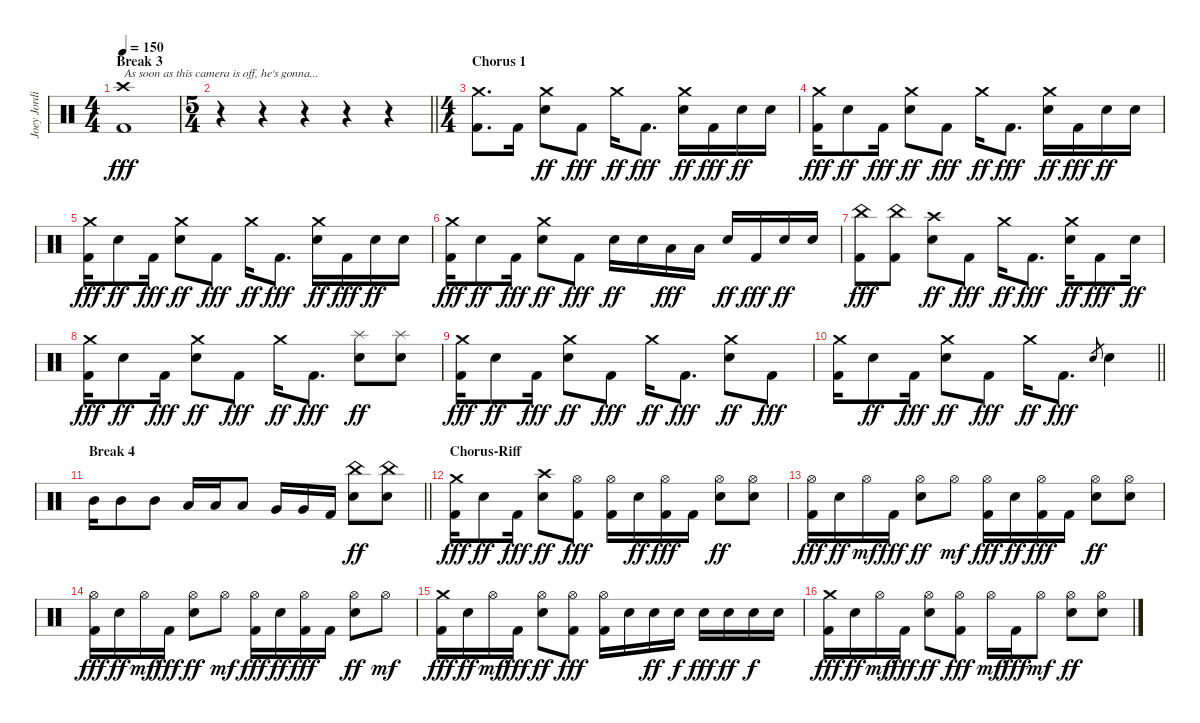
\track ("Joey Jordison" "Joey Jordi") {instrument percussion}
\staff {score}
\articulation defaults
\ts (4 4)
\section ("" "Break 3")
\tempo 150
\clef neutral
\ks c
("Crash high (hit)" "Kick (hit) 2").1{txt "As soon as this camera is off, he's gonna..." dy fff} |
\ts (5 4)
\barLineRight lightlight
r.4 r.4 r.4 r.4 r.4 |
\ts (4 4)
\section ("" "Chorus 1")
("Crash medium (hit)" "Kick (hit) 2").8{d} "Kick (hit) 2".16 ("Crash medium (hit)" "Electric Snare (hit)").8{dy ff} "Kick (hit) 2".8{dy fff} "Crash medium (hit)".16{dy ff} "Kick (hit) 2".8{d dy fff} ("Crash medium (hit)" "Electric Snare (hit)").16{dy ff} "Kick (hit) 2".16{dy fff} "Electric Snare (hit)".16{dy ff} "Electric Snare (hit)".16 |
("Crash medium (hit)" "Kick (hit) 2").16{dy fff} "Electric Snare (hit)".8{dy ff} "Kick (hit) 2".16{dy fff} ("Crash medium (hit)" "Electric Snare (hit)").8{dy ff} "Kick (hit) 2".8{dy fff} "Crash medium (hit)".16{dy ff} "Kick (hit) 2".8{d dy fff} ("Crash medium (hit)" "Electric Snare (hit)").16{dy ff} "Kick (hit) 2".16{dy fff} "Electric Snare (hit)".16{dy ff} "Electric Snare (hit)".16 |
("Crash medium (hit)" "Kick (hit) 2").16{dy fff} "Electric Snare (hit)".8{dy ff} "Kick (hit) 2".16{dy fff} ("Crash medium (hit)" "Electric Snare (hit)").8{dy ff} "Kick (hit) 2".8{dy fff} "Crash medium (hit)".16{dy ff} "Kick (hit) 2".8{d dy fff} ("Crash medium (hit)" "Electric Snare (hit)").16{dy ff} "Kick (hit) 2".16{dy fff} "Electric Snare (hit)".16{dy ff} "Electric Snare (hit)".16 |
("Crash medium (hit)" "Kick (hit) 2").16{dy fff} "Electric Snare (hit)".8{dy ff} "Kick (hit) 2".16{dy fff} ("Crash medium (hit)" "Electric Snare (hit)").8{dy ff} "Kick (hit) 2".8{dy fff} "Electric Snare (hit)".16{dy ff} "Electric Snare (hit)".16 "Low Tom (hit)".16{dy fff} "Low Tom (hit)".16 "Electric Snare (hit)".16{dy ff} "Kick (hit) 2".16{dy fff} "Electric Snare (hit)".16{dy ff} "Electric Snare (hit)".16 |
("China (hit)" "Kick (hit) 2").8{dy fff} ("China (hit)" "Kick (hit) 2").8 ("Crash high (hit)" "Electric Snare (hit)").8{dy ff} "Kick (hit) 2".8{dy fff} "Crash medium (hit)".16{dy ff} "Kick (hit) 2".8{d dy fff} ("Crash medium (hit)" "Electric Snare (hit)").16{dy ff} "Kick (hit) 2".8{dy fff} "Electric Snare (hit)".16{dy ff} |
("Crash medium (hit)" "Kick (hit) 2").16{dy fff} "Electric Snare (hit)".8{dy ff} "Kick (hit) 2".16{dy fff} ("Crash medium (hit)" "Electric Snare (hit)").8{dy ff} "Kick (hit) 2".8{dy fff} "Crash medium (hit)".16{dy ff} "Kick (hit) 2".8{d dy fff} ("Splash (hit)" "Electric Snare (hit)").8{dy ff} ("Splash (hit)" "Electric Snare (hit)").8 |
("Crash medium (hit)" "Kick (hit) 2").16{dy fff} "Electric Snare (hit)".8{dy ff} "Kick (hit) 2".16{dy fff} ("Crash medium (hit)" "Electric Snare (hit)").8{dy ff} "Kick (hit) 2".8{dy fff} "Crash medium (hit)".16{dy ff} "Kick (hit) 2".8{d dy fff} ("Crash medium (hit)" "Electric Snare (hit)").8{dy ff} "Kick (hit) 2".8{dy fff} |
\barLineRight lightlight
("Crash medium (hit)" "Kick (hit) 2").16 "Electric Snare (hit)".8{dy ff} "Kick (hit) 2".16{dy fff} ("Crash medium (hit)" "Electric Snare (hit)").8{dy ff} "Kick (hit) 2".8{dy fff} "Crash medium (hit)".16{dy ff} "Kick (hit) 2".8{d dy fff} "Electric Snare (hit)".8{gr} "Electric Snare (hit)".4 |
\section ("" "Break 4")
\barLineRight lightlight "Mid Tom (hit)".16 "Mid Tom (hit)".8 "Mid Tom (hit)".8 "Low Tom (hit)".16 "Low Tom (hit)".16 "Low Tom (hit)".8 "Very Low Tom (hit)".16 "Very Low Tom (hit)".16 "Kick (hit) 2".16
("China (hit)" "Electric Snare (hit)").8{dy ff} ("China (hit)" "Electric Snare (hit)").8 |
\section ("" "Chorus-Riff ")
("Crash medium (hit)" "Kick (hit) 2").16{dy fff} "Electric Snare (hit)".8{dy ff} "Kick (hit) 2".16{dy fff} ("Crash high (hit)" "Electric Snare (hit)").8{dy ff} ("Hi-Hat (open)" "Kick (hit) 2").8{dy fff} ("Hi-Hat (open)" "Kick (hit) 2").16 "Electric Snare (hit)".16{dy ff} ("Hi-Hat (open)" "Kick (hit) 2").16{dy fff} "Kick (hit) 2".16 ("Hi-Hat (open)" "Electric Snare (hit)").8{dy ff} ("Hi-Hat (open)" "Electric Snare (hit)").8 |
("Hi-Hat (open)" "Kick (hit) 2").16{dy fff} "Electric Snare (hit)".16{dy ff} "Hi-Hat (open)".16{dy mf} "Kick (hit) 2".16{dy fff} ("Hi-Hat (open)" "Electric Snare (hit)").8{dy ff} "Hi-Hat (open)".8{dy mf} ("Hi-Hat (open)" "Kick (hit) 2").16{dy fff} "Electric Snare (hit)".16{dy ff} ("Hi-Hat (open)" "Kick (hit) 2").16{dy fff} "Kick (hit) 2".16 ("Hi-Hat (open)" "Electric Snare (hit)").8{dy ff} ("Hi-Hat (open)" "Electric Snare (hit)").8 |
("Hi-Hat (open)" "Kick (hit) 2").16{dy fff} "Electric Snare (hit)".16{dy ff} "Hi-Hat (open)".16{dy mf} "Kick (hit) 2".16{dy fff} ("Hi-Hat (open)" "Electric Snare (hit)").8{dy ff} "Hi-Hat (open)".8{dy mf} ("Hi-Hat (open)" "Kick (hit) 2").16{dy fff} "Electric Snare (hit)".16{dy ff} ("Hi-Hat (open)" "Kick (hit) 2").16{dy fff} "Kick (hit) 2".16 ("Hi-Hat (open)" "Electric Snare (hit)").8{dy ff} "Hi-Hat (open)".8{dy mf} |
("Crash medium (hit)" "Kick (hit) 2").16{dy fff} "Electric Snare (hit)".16{dy ff} "Hi-Hat (open)".16{dy mf} "Kick (hit) 2".16{dy fff} ("Hi-Hat (open)" "Electric Snare (hit)").8{dy ff} ("Hi-Hat (open)" "Kick (hit) 2").8{dy fff} ("Hi-Hat (open)" "Kick (hit) 2").16 "Electric Snare (hit)".16 "Electric Snare (hit)".16{dy ff} "Electric Snare (hit)".16{dy f} "Electric Snare (hit)".16{dy fff} "Electric Snare (hit)".16{dy ff} "Electric Snare (hit)".16{dy f} "Electric Snare (hit)".16 |
("Crash medium (hit)" "Kick (hit) 2").16{dy fff} "Electric Snare (hit)".16{dy ff} "Hi-Hat (open)".16{dy mf} "Kick (hit) 2".16{dy fff} ("Hi-Hat (open)" "Electric Snare (hit)").8{dy ff} ("Hi-Hat (open)" "Kick (hit) 2").8{dy fff} "Hi-Hat (open)".16{dy mf} "Kick (hit) 2".16{dy fff} "Hi-Hat (open)".8{dy mf} ("Hi-Hat (open)" "Electric Snare (hit)").8{dy ff} ("Hi-Hat (open)" "Electric Snare (hit)").8
